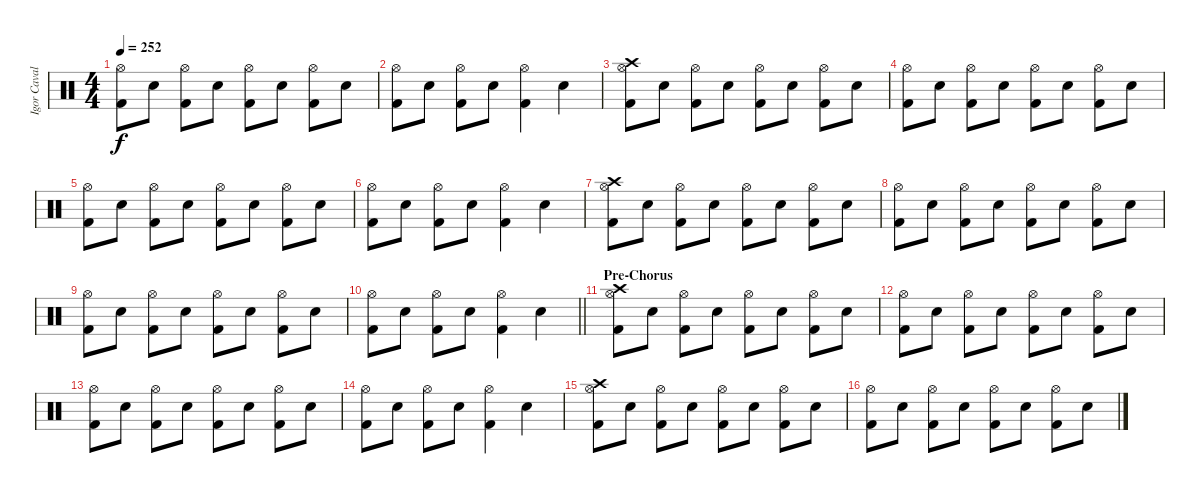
\track ("Igor Cavalera" "Igor Caval") {instrument percussion}
\staff {score}
\articulation defaults
\ts (4 4)
\tempo 252
\clef neutral
\ks c
("Hi-Hat (open)" "Kick (hit) 2").8{dy f} "Electric Snare (hit)".8 ("Hi-Hat (open)" "Kick (hit) 2").8 "Electric Snare (hit)".8 ("Hi-Hat (open)" "Kick (hit) 2").8 "Electric Snare (hit)".8 ("Hi-Hat (open)" "Kick (hit) 2").8 "Electric Snare (hit)".8 |
("Hi-Hat (open)" "Kick (hit) 2").8 "Electric Snare (hit)".8 ("Hi-Hat (open)" "Kick (hit) 2").8 "Electric Snare (hit)".8 ("Hi-Hat (open)" "Kick (hit) 2").4 "Electric Snare (hit)".4 |
("Crash high (hit)" "Hi-Hat (open)" "Kick (hit) 2").8 "Electric Snare (hit)".8 ("Hi-Hat (open)" "Kick (hit) 2").8 "Electric Snare (hit)".8 ("Hi-Hat (open)" "Kick (hit) 2").8 "Electric Snare (hit)".8 ("Hi-Hat (open)" "Kick (hit) 2").8 "Electric Snare (hit)".8 |
("Hi-Hat (open)" "Kick (hit) 2").8 "Electric Snare (hit)".8 ("Hi-Hat (open)" "Kick (hit) 2").8 "Electric Snare (hit)".8 ("Hi-Hat (open)" "Kick (hit) 2").8 "Electric Snare (hit)".8 ("Hi-Hat (open)" "Kick (hit) 2").8 "Electric Snare (hit)".8 |
("Hi-Hat (open)" "Kick (hit) 2").8 "Electric Snare (hit)".8 ("Hi-Hat (open)" "Kick (hit) 2").8 "Electric Snare (hit)".8 ("Hi-Hat (open)" "Kick (hit) 2").8 "Electric Snare (hit)".8 ("Hi-Hat (open)" "Kick (hit) 2").8 "Electric Snare (hit)".8 |
("Hi-Hat (open)" "Kick (hit) 2").8 "Electric Snare (hit)".8 ("Hi-Hat (open)" "Kick (hit) 2").8 "Electric Snare (hit)".8 ("Hi-Hat (open)" "Kick (hit) 2").4 "Electric Snare (hit)".4 |
("Crash high (hit)" "Hi-Hat (open)" "Kick (hit) 2").8 "Electric Snare (hit)".8 ("Hi-Hat (open)" "Kick (hit) 2").8 "Electric Snare (hit)".8 ("Hi-Hat (open)" "Kick (hit) 2").8 "Electric Snare (hit)".8 ("Hi-Hat (open)" "Kick (hit) 2").8 "Electric Snare (hit)".8 |
("Hi-Hat (open)" "Kick (hit) 2").8 "Electric Snare (hit)".8 ("Hi-Hat (open)" "Kick (hit) 2").8 "Electric Snare (hit)".8 ("Hi-Hat (open)" "Kick (hit) 2").8 "Electric Snare (hit)".8 ("Hi-Hat (open)" "Kick (hit) 2").8 "Electric Snare (hit)".8 |
("Hi-Hat (open)" "Kick (hit) 2").8 "Electric Snare (hit)".8 ("Hi-Hat (open)" "Kick (hit) 2").8 "Electric Snare (hit)".8 ("Hi-Hat (open)" "Kick (hit) 2").8 "Electric Snare (hit)".8 ("Hi-Hat (open)" "Kick (hit) 2").8 "Electric Snare (hit)".8 |
\barLineRight lightlight
("Hi-Hat (open)" "Kick (hit) 2").8 "Electric Snare (hit)".8 ("Hi-Hat (open)" "Kick (hit) 2").8 "Electric Snare (hit)".8 ("Hi-Hat (open)" "Kick (hit) 2").4 "Electric Snare (hit)".4 |
\section ("" "Pre-Chorus")
("Crash high (hit)" "Hi-Hat (open)" "Kick (hit) 2").8 "Electric Snare (hit)".8 ("Hi-Hat (open)" "Kick (hit) 2").8 "Electric Snare (hit)".8 ("Hi-Hat (open)" "Kick (hit) 2").8 "Electric Snare (hit)".8 ("Hi-Hat (open)" "Kick (hit) 2").8 "Electric Snare (hit)".8 |
("Hi-Hat (open)" "Kick (hit) 2").8 "Electric Snare (hit)".8 ("Hi-Hat (open)" "Kick (hit) 2").8 "Electric Snare (hit)".8 ("Hi-Hat (open)" "Kick (hit) 2").8 "Electric Snare (hit)".8 ("Hi-Hat (open)" "Kick (hit) 2").8 "Electric Snare (hit)".8 |
("Hi-Hat (open)" "Kick (hit) 2").8 "Electric Snare (hit)".8 ("Hi-Hat (open)" "Kick (hit) 2").8 "Electric Snare (hit)".8 ("Hi-Hat (open)" "Kick (hit) 2").8 "Electric Snare (hit)".8 ("Hi-Hat (open)" "Kick (hit) 2").8 "Electric Snare (hit)".8 |
("Hi-Hat (open)" "Kick (hit) 2").8 "Electric Snare (hit)".8 ("Hi-Hat (open)" "Kick (hit) 2").8 "Electric Snare (hit)".8 ("Hi-Hat (open)" "Kick (hit) 2").4 "Electric Snare (hit)".4 |
("Crash high (hit)" "Hi-Hat (open)" "Kick (hit) 2").8 "Electric Snare (hit)".8 ("Hi-Hat (open)" "Kick (hit) 2").8 "Electric Snare (hit)".8 ("Hi-Hat (open)" "Kick (hit) 2").8 "Electric Snare (hit)".8 ("Hi-Hat (open)" "Kick (hit) 2").8 "Electric Snare (hit)".8 |
("Hi-Hat (open)" "Kick (hit) 2").8 "Electric Snare (hit)".8 ("Hi-Hat (open)" "Kick (hit) 2").8 "Electric Snare (hit)".8 ("Hi-Hat (open)" "Kick (hit) 2").8 "Electric Snare (hit)".8 ("Hi-Hat (open)" "Kick (hit) 2").8 "Electric Snare (hit)".8
